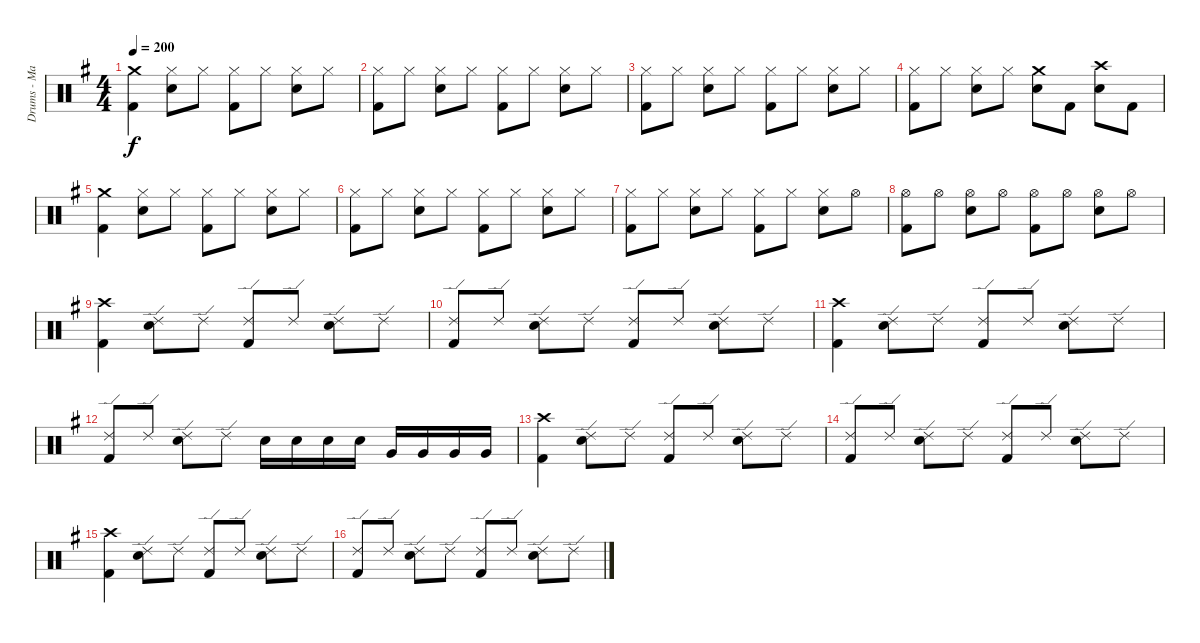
\track ("Drums - Marky Ramone" "Drums - Ma") {instrument percussion}
\staff {score}
\articulation defaults
\ts (4 4)
\tempo 200
\clef neutral
\ks g
("Crash medium (hit)" "Kick (hit) 2").4{dy f} ("Hi-Hat (closed)" "Snare (hit) 2").8 "Hi-Hat (closed)".8 ("Hi-Hat (closed)" "Kick (hit) 2").8 "Hi-Hat (closed)".8 ("Hi-Hat (closed)" "Snare (hit) 2").8 "Hi-Hat (closed)".8 |
("Hi-Hat (closed)" "Kick (hit) 2").8 "Hi-Hat (closed)".8 ("Hi-Hat (closed)" "Snare (hit) 2").8 "Hi-Hat (closed)".8 ("Hi-Hat (closed)" "Kick (hit) 2").8 "Hi-Hat (closed)".8 ("Hi-Hat (closed)" "Snare (hit) 2").8 "Hi-Hat (closed)".8 |
("Hi-Hat (closed)" "Kick (hit) 2").8 "Hi-Hat (closed)".8 ("Hi-Hat (closed)" "Snare (hit) 2").8 "Hi-Hat (closed)".8 ("Hi-Hat (closed)" "Kick (hit) 2").8 "Hi-Hat (closed)".8 ("Hi-Hat (closed)" "Snare (hit) 2").8 "Hi-Hat (closed)".8 |
("Hi-Hat (closed)" "Kick (hit) 2").8 "Hi-Hat (closed)".8 ("Hi-Hat (closed)" "Snare (hit) 2").8 "Hi-Hat (closed)".8 ("Crash medium (hit)" "Snare (hit) 2").8 "Kick (hit) 2".8 ("Crash high (hit)" "Snare (hit) 2").8 "Kick (hit) 2".8 |
("Crash medium (hit)" "Kick (hit) 2").4 ("Hi-Hat (closed)" "Snare (hit) 2").8 "Hi-Hat (closed)".8 ("Hi-Hat (closed)" "Kick (hit) 2").8 "Hi-Hat (closed)".8 ("Hi-Hat (closed)" "Snare (hit) 2").8 "Hi-Hat (closed)".8 |
("Hi-Hat (closed)" "Kick (hit) 2").8 "Hi-Hat (closed)".8 ("Hi-Hat (closed)" "Snare (hit) 2").8 "Hi-Hat (closed)".8 ("Hi-Hat (closed)" "Kick (hit) 2").8 "Hi-Hat (closed)".8 ("Hi-Hat (closed)" "Snare (hit) 2").8 "Hi-Hat (closed)".8 |
("Hi-Hat (closed)" "Kick (hit) 2").8 "Hi-Hat (closed)".8 ("Hi-Hat (closed)" "Snare (hit) 2").8 "Hi-Hat (closed)".8 ("Hi-Hat (closed)" "Kick (hit) 2").8 "Hi-Hat (closed)".8 ("Hi-Hat (closed)" "Snare (hit) 2").8 "Hi-Hat (open)".8 |
("Hi-Hat (open)" "Kick (hit) 2").8 "Hi-Hat (open)".8 ("Hi-Hat (open)" "Snare (hit) 2").8 "Hi-Hat (open)".8 ("Hi-Hat (open)" "Kick (hit) 2").8 "Hi-Hat (open)".8 ("Hi-Hat (open)" "Snare (hit) 2").8 "Hi-Hat (open)".8 |
("Crash high (hit)" "Kick (hit) 2").4 ("Ride (edge) 2" "Snare (hit) 2").8 "Ride (edge) 2".8 ("Ride (edge) 2" "Kick (hit) 2").8 "Ride (edge) 2".8 ("Ride (edge) 2" "Snare (hit) 2").8 "Ride (edge) 2".8 |
("Ride (edge) 2" "Kick (hit) 2").8 "Ride (edge) 2".8 ("Ride (edge) 2" "Snare (hit) 2").8 "Ride (edge) 2".8 ("Ride (edge) 2" "Kick (hit) 2").8 "Ride (edge) 2".8 ("Ride (edge) 2" "Snare (hit) 2").8 "Ride (edge) 2".8 |
("Crash high (hit)" "Kick (hit) 2").4 ("Ride (edge) 2" "Snare (hit) 2").8 "Ride (edge) 2".8 ("Ride (edge) 2" "Kick (hit) 2").8 "Ride (edge) 2".8 ("Ride (edge) 2" "Snare (hit) 2").8 "Ride (edge) 2".8 |
("Ride (edge) 2" "Kick (hit) 2").8 "Ride (edge) 2".8 ("Ride (edge) 2" "Snare (hit) 2").8 "Ride (edge) 2".8 "Snare (hit) 2".16 "Snare (hit) 2".16 "Snare (hit) 2".16 "Snare (hit) 2".16 "Very Low Tom (hit)".16 "Very Low Tom (hit)".16 "Very Low Tom (hit)".16 "Very Low Tom (hit)".16 |
("Crash high (hit)" "Kick (hit) 2").4 ("Ride (edge) 2" "Snare (hit) 2").8 "Ride (edge) 2".8 ("Ride (edge) 2" "Kick (hit) 2").8 "Ride (edge) 2".8 ("Ride (edge) 2" "Snare (hit) 2").8 "Ride (edge) 2".8 |
("Ride (edge) 2" "Kick (hit) 2").8 "Ride (edge) 2".8 ("Ride (edge) 2" "Snare (hit) 2").8 "Ride (edge) 2".8 ("Ride (edge) 2" "Kick (hit) 2").8 "Ride (edge) 2".8 ("Ride (edge) 2" "Snare (hit) 2").8 "Ride (edge) 2".8 |
("Crash high (hit)" "Kick (hit) 2").4 ("Ride (edge) 2" "Snare (hit) 2").8 "Ride (edge) 2".8 ("Ride (edge) 2" "Kick (hit) 2").8 "Ride (edge) 2".8 ("Ride (edge) 2" "Snare (hit) 2").8 "Ride (edge) 2".8 |
("Ride (edge) 2" "Kick (hit) 2").8 "Ride (edge) 2".8 ("Ride (edge) 2" "Snare (hit) 2").8 "Ride (edge) 2".8 ("Ride (edge) 2" "Kick (hit) 2").8 "Ride (edge) 2".8 ("Ride (edge) 2" "Snare (hit) 2").8 "Ride (edge) 2".8
